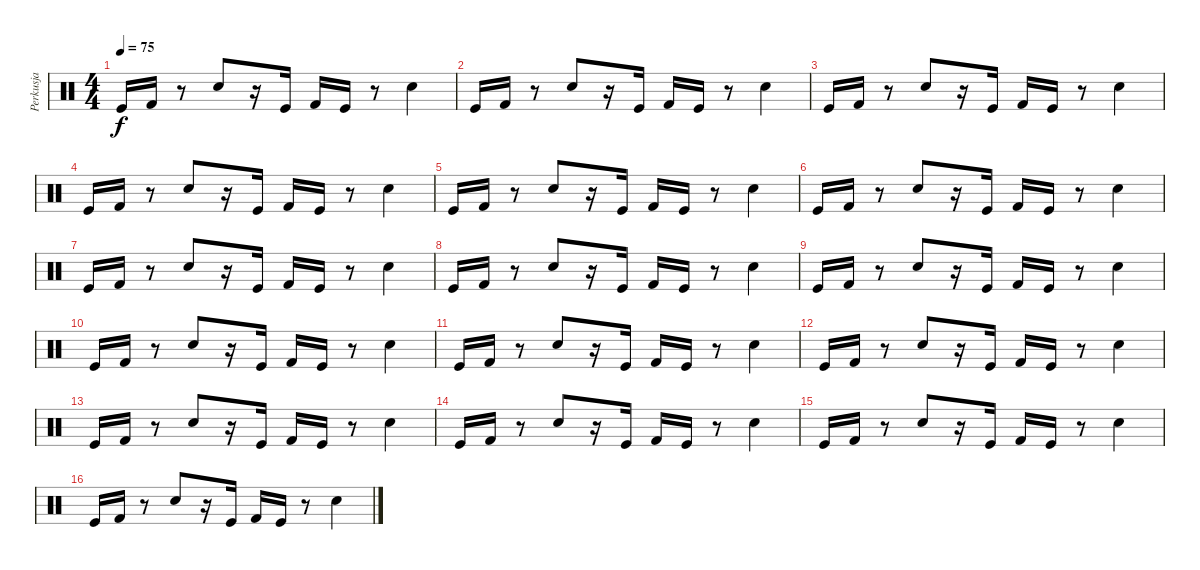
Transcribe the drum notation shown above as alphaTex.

\track ("Perkusja" "Perkusja") {instrument percussion}
\staff {score}
\articulation defaults
\ts (4 4)
\tempo 75
\clef neutral
\ks c "Kick (hit)".16{dy f} "Kick (hit) 2".16
r.8 "Snare (hit) 2".8 r.16 "Kick (hit)".16 "Kick (hit) 2".16 "Kick (hit)".16 r.8 "Snare (hit) 2".4 |
"Kick (hit)".16 "Kick (hit) 2".16 r.8 "Snare (hit) 2".8 r.16 "Kick (hit)".16 "Kick (hit) 2".16 "Kick (hit)".16 r.8 "Snare (hit) 2".4 |
"Kick (hit)".16 "Kick (hit) 2".16 r.8 "Snare (hit) 2".8 r.16 "Kick (hit)".16 "Kick (hit) 2".16 "Kick (hit)".16 r.8 "Snare (hit) 2".4 |
"Kick (hit)".16 "Kick (hit) 2".16 r.8 "Snare (hit) 2".8 r.16 "Kick (hit)".16 "Kick (hit) 2".16 "Kick (hit)".16 r.8 "Snare (hit) 2".4 |
"Kick (hit)".16 "Kick (hit) 2".16 r.8 "Snare (hit) 2".8 r.16 "Kick (hit)".16 "Kick (hit) 2".16 "Kick (hit)".16 r.8 "Snare (hit) 2".4 |
"Kick (hit)".16 "Kick (hit) 2".16 r.8 "Snare (hit) 2".8 r.16 "Kick (hit)".16 "Kick (hit) 2".16 "Kick (hit)".16 r.8 "Snare (hit) 2".4 |
"Kick (hit)".16 "Kick (hit) 2".16 r.8 "Snare (hit) 2".8 r.16 "Kick (hit)".16 "Kick (hit) 2".16 "Kick (hit)".16 r.8 "Snare (hit) 2".4 |
"Kick (hit)".16 "Kick (hit) 2".16 r.8 "Snare (hit) 2".8 r.16 "Kick (hit)".16 "Kick (hit) 2".16 "Kick (hit)".16 r.8 "Snare (hit) 2".4 |
"Kick (hit)".16 "Kick (hit) 2".16 r.8 "Snare (hit) 2".8 r.16 "Kick (hit)".16 "Kick (hit) 2".16 "Kick (hit)".16 r.8 "Snare (hit) 2".4 |
"Kick (hit)".16 "Kick (hit) 2".16 r.8 "Snare (hit) 2".8 r.16 "Kick (hit)".16 "Kick (hit) 2".16 "Kick (hit)".16 r.8 "Snare (hit) 2".4 |
"Kick (hit)".16 "Kick (hit) 2".16 r.8 "Snare (hit) 2".8 r.16 "Kick (hit)".16 "Kick (hit) 2".16 "Kick (hit)".16 r.8 "Snare (hit) 2".4 |
"Kick (hit)".16 "Kick (hit) 2".16 r.8 "Snare (hit) 2".8 r.16 "Kick (hit)".16 "Kick (hit) 2".16 "Kick (hit)".16 r.8 "Snare (hit) 2".4 |
"Kick (hit)".16 "Kick (hit) 2".16 r.8 "Snare (hit) 2".8 r.16 "Kick (hit)".16 "Kick (hit) 2".16 "Kick (hit)".16 r.8 "Snare (hit) 2".4 |
"Kick (hit)".16 "Kick (hit) 2".16 r.8 "Snare (hit) 2".8 r.16 "Kick (hit)".16 "Kick (hit) 2".16 "Kick (hit)".16 r.8 "Snare (hit) 2".4 |
"Kick (hit)".16 "Kick (hit) 2".16 r.8 "Snare (hit) 2".8 r.16 "Kick (hit)".16 "Kick (hit) 2".16 "Kick (hit)".16 r.8 "Snare (hit) 2".4 |
"Kick (hit)".16 "Kick (hit) 2".16 r.8 "Snare (hit) 2".8 r.16 "Kick (hit)".16 "Kick (hit) 2".16 "Kick (hit)".16 r.8 "Snare (hit) 2".4
